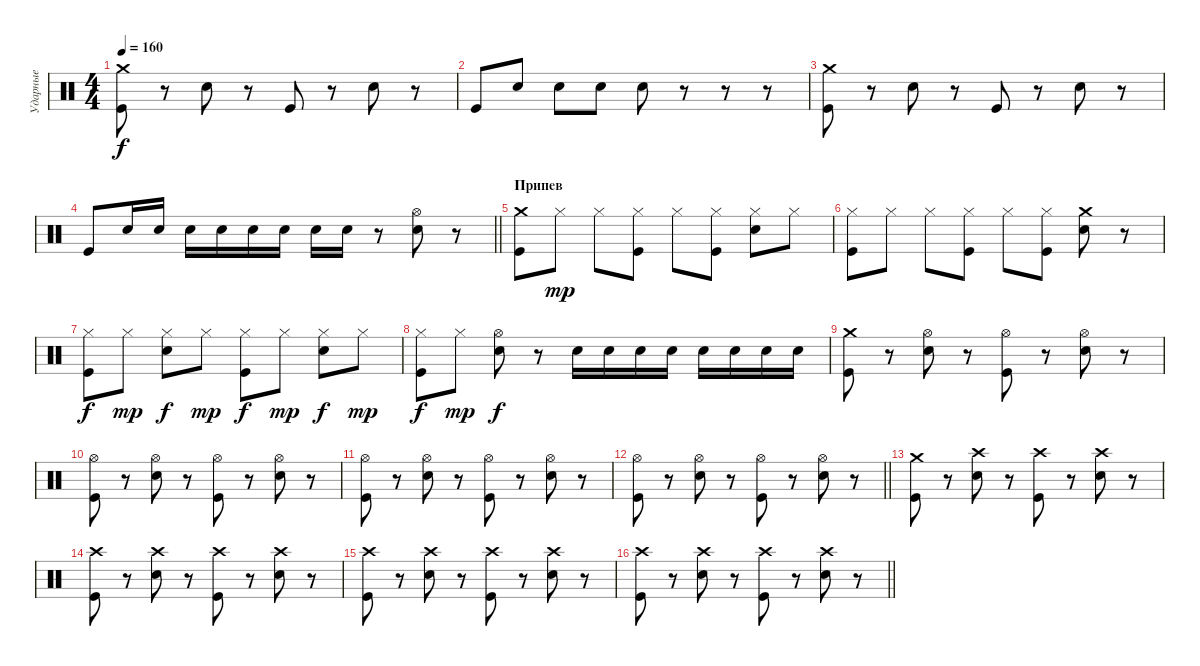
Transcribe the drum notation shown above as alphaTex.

\track ("Ударные" "Ударные") {instrument percussion}
\staff {score}
\articulation defaults
\ts (4 4)
\tempo 160
\clef neutral
\ks c
("Crash medium (hit)" "Kick (hit)").8{dy f} r.8 "Electric Snare (hit)".8 r.8 "Kick (hit)".8 r.8 "Electric Snare (hit)".8 r.8 |
"Kick (hit)".8 "Electric Snare (hit)".8 "Electric Snare (hit)".8 "Electric Snare (hit)".8 "Electric Snare (hit)".8 r.8 r.8 r.8 |
("Crash medium (hit)" "Kick (hit)").8 r.8 "Electric Snare (hit)".8 r.8 "Kick (hit)".8 r.8 "Electric Snare (hit)".8 r.8 |
\barLineRight lightlight "Kick (hit)".8 "Electric Snare (hit)".16 "Electric Snare (hit)".16 "Electric Snare (hit)".16 "Electric Snare (hit)".16 "Electric Snare (hit)".16 "Electric Snare (hit)".16 "Electric Snare (hit)".16 "Electric Snare (hit)".16
r.8 ("Hi-Hat (open)" "Electric Snare (hit)").8 r.8 |
\section ("" "Припев")
("Crash medium (hit)" "Kick (hit)").8 "Hi-Hat (closed)".8{dy mp} "Hi-Hat (closed)".8 ("Hi-Hat (closed)" "Kick (hit)").8 "Hi-Hat (closed)".8 ("Hi-Hat (closed)" "Kick (hit)").8 ("Hi-Hat (closed)" "Electric Snare (hit)").8 "Hi-Hat (closed)".8 |
("Hi-Hat (closed)" "Kick (hit)").8 "Hi-Hat (closed)".8 "Hi-Hat (closed)".8 ("Hi-Hat (closed)" "Kick (hit)").8 "Hi-Hat (closed)".8 ("Hi-Hat (closed)" "Kick (hit)").8 ("Crash medium (hit)" "Electric Snare (hit)").8 r.8 |
("Hi-Hat (closed)" "Kick (hit)").8{dy f} "Hi-Hat (closed)".8{dy mp} ("Hi-Hat (closed)" "Electric Snare (hit)").8{dy f} "Hi-Hat (closed)".8{dy mp} ("Hi-Hat (closed)" "Kick (hit)").8{dy f} "Hi-Hat (closed)".8{dy mp} ("Hi-Hat (closed)" "Electric Snare (hit)").8{dy f} "Hi-Hat (closed)".8{dy mp} |
("Hi-Hat (closed)" "Kick (hit)").8{dy f} "Hi-Hat (closed)".8{dy mp} ("Hi-Hat (open)" "Electric Snare (hit)").8{dy f} r.8 "Electric Snare (hit)".16 "Electric Snare (hit)".16 "Electric Snare (hit)".16 "Electric Snare (hit)".16 "Electric Snare (hit)".16 "Electric Snare (hit)".16 "Electric Snare (hit)".16 "Electric Snare (hit)".16 |
("Crash medium (hit)" "Kick (hit)").8 r.8 ("Hi-Hat (open)" "Electric Snare (hit)").8 r.8 ("Hi-Hat (open)" "Kick (hit)").8 r.8 ("Hi-Hat (open)" "Electric Snare (hit)").8 r.8 |
("Hi-Hat (open)" "Kick (hit)").8 r.8 ("Hi-Hat (open)" "Electric Snare (hit)").8 r.8 ("Hi-Hat (open)" "Kick (hit)").8 r.8 ("Hi-Hat (open)" "Electric Snare (hit)").8 r.8 |
("Hi-Hat (open)" "Kick (hit)").8 r.8 ("Hi-Hat (open)" "Electric Snare (hit)").8 r.8 ("Hi-Hat (open)" "Kick (hit)").8 r.8 ("Hi-Hat (open)" "Electric Snare (hit)").8 r.8 |
\barLineRight lightlight
("Hi-Hat (open)" "Kick (hit)").8 r.8 ("Hi-Hat (open)" "Electric Snare (hit)").8 r.8 ("Hi-Hat (open)" "Kick (hit)").8 r.8 ("Hi-Hat (open)" "Electric Snare (hit)").8 r.8 |
\section ("" " ")
("Crash medium (hit)" "Kick (hit)").8 r.8 ("Crash high (hit)" "Electric Snare (hit)").8 r.8 ("Crash high (hit)" "Kick (hit)").8 r.8 ("Crash high (hit)" "Electric Snare (hit)").8 r.8 |
("Crash high (hit)" "Kick (hit)").8 r.8 ("Crash high (hit)" "Electric Snare (hit)").8 r.8 ("Crash high (hit)" "Kick (hit)").8 r.8 ("Crash high (hit)" "Electric Snare (hit)").8 r.8 |
("Crash high (hit)" "Kick (hit)").8 r.8 ("Crash high (hit)" "Electric Snare (hit)").8 r.8 ("Crash high (hit)" "Kick (hit)").8 r.8 ("Crash high (hit)" "Electric Snare (hit)").8 r.8 |
\barLineRight lightlight
("Crash high (hit)" "Kick (hit)").8 r.8 ("Crash high (hit)" "Electric Snare (hit)").8 r.8 ("Crash high (hit)" "Kick (hit)").8 r.8 ("Crash high (hit)" "Electric Snare (hit)").8 r.8
